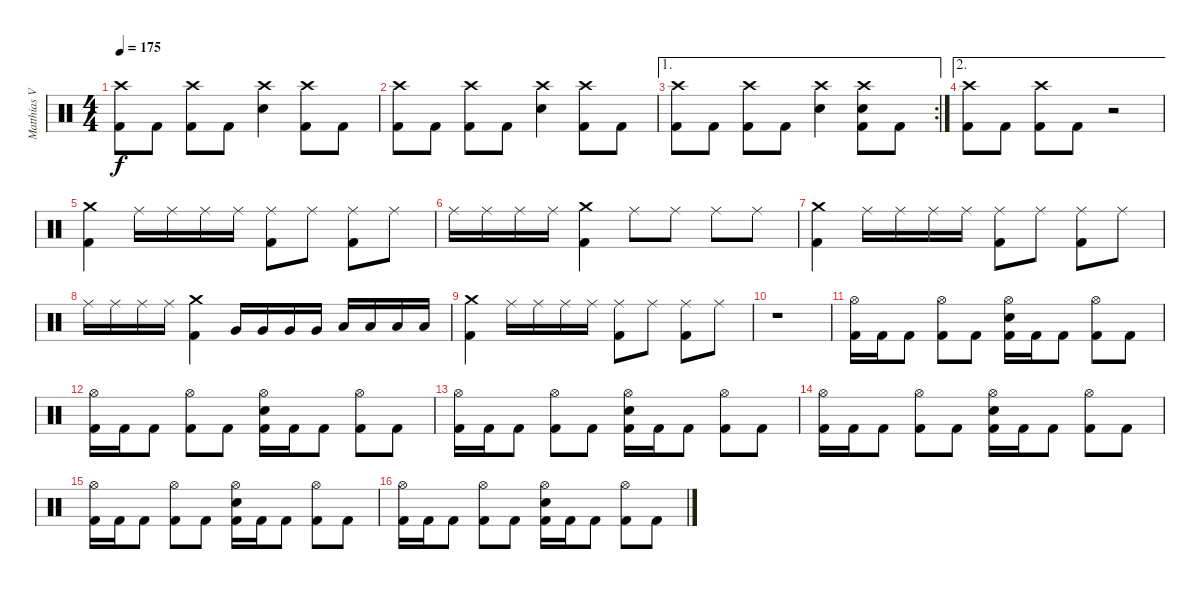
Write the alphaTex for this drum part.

\track ("Matthias Voigt" "Matthias V") {instrument percussion}
\staff {score}
\articulation defaults
\ts (4 4)
\tempo 175
\clef neutral
\ks c
("Crash high (hit)" "Kick (hit) 2").8{dy f} "Kick (hit) 2".8 ("Crash high (hit)" "Kick (hit) 2").8 "Kick (hit) 2".8 ("Crash high (hit)" "Electric Snare (hit)").4 ("Crash high (hit)" "Kick (hit) 2").8 "Kick (hit) 2".8 |
("Crash high (hit)" "Kick (hit) 2").8 "Kick (hit) 2".8 ("Crash high (hit)" "Kick (hit) 2").8 "Kick (hit) 2".8 ("Crash high (hit)" "Electric Snare (hit)").4 ("Crash high (hit)" "Kick (hit) 2").8 "Kick (hit) 2".8 |
\ae 1
\rc 2
("Crash high (hit)" "Kick (hit) 2").8 "Kick (hit) 2".8 ("Crash high (hit)" "Kick (hit) 2").8 "Kick (hit) 2".8 ("Crash high (hit)" "Electric Snare (hit)").4 ("Crash high (hit)" "Electric Snare (hit)" "Kick (hit) 2").8 "Kick (hit) 2".8 |
\ae 2
("Crash high (hit)" "Kick (hit) 2").8 "Kick (hit) 2".8 ("Crash high (hit)" "Kick (hit) 2").8 "Kick (hit) 2".8 r.2 |
("Crash medium (hit)" "Kick (hit) 2").4 "Ride (middle)".16 "Ride (middle)".16 "Ride (middle)".16 "Ride (middle)".16 ("Ride (middle)" "Kick (hit) 2").8 "Ride (middle)".8 ("Ride (middle)" "Kick (hit) 2").8 "Ride (middle)".8 |
"Ride (middle)".16 "Ride (middle)".16 "Ride (middle)".16 "Ride (middle)".16 ("Crash medium (hit)" "Kick (hit) 2").4 "Ride (middle)".8 "Ride (middle)".8 "Ride (middle)".8 "Ride (middle)".8 |
("Crash medium (hit)" "Kick (hit) 2").4 "Ride (middle)".16 "Ride (middle)".16 "Ride (middle)".16 "Ride (middle)".16 ("Ride (middle)" "Kick (hit) 2").8 "Ride (middle)".8 ("Ride (middle)" "Kick (hit) 2").8 "Ride (middle)".8 |
"Ride (middle)".16 "Ride (middle)".16 "Ride (middle)".16 "Ride (middle)".16 ("Crash medium (hit)" "Kick (hit) 2").4 "Very Low Tom (hit)".16 "Very Low Tom (hit)".16 "Very Low Tom (hit)".16 "Very Low Tom (hit)".16 "Low Tom (hit)".16 "Low Tom (hit)".16 "Low Tom (hit)".16 "Low Tom (hit)".16 |
("Crash medium (hit)" "Kick (hit) 2").4 "Ride (middle)".16 "Ride (middle)".16 "Ride (middle)".16 "Ride (middle)".16 ("Ride (middle)" "Kick (hit) 2").8 "Ride (middle)".8 ("Ride (middle)" "Kick (hit) 2").8 "Ride (middle)".8 |
r.1 |
("Hi-Hat (open)" "Kick (hit) 2").16 "Kick (hit) 2".16 "Kick (hit) 2".8 ("Hi-Hat (open)" "Kick (hit) 2").8 "Kick (hit) 2".8 ("Hi-Hat (open)" "Electric Snare (hit)" "Kick (hit) 2").16 "Kick (hit) 2".16 "Kick (hit) 2".8 ("Hi-Hat (open)" "Kick (hit) 2").8 "Kick (hit) 2".8 |
("Hi-Hat (open)" "Kick (hit) 2").16 "Kick (hit) 2".16 "Kick (hit) 2".8 ("Hi-Hat (open)" "Kick (hit) 2").8 "Kick (hit) 2".8 ("Hi-Hat (open)" "Electric Snare (hit)" "Kick (hit) 2").16 "Kick (hit) 2".16 "Kick (hit) 2".8 ("Hi-Hat (open)" "Kick (hit) 2").8 "Kick (hit) 2".8 |
("Hi-Hat (open)" "Kick (hit) 2").16 "Kick (hit) 2".16 "Kick (hit) 2".8 ("Hi-Hat (open)" "Kick (hit) 2").8 "Kick (hit) 2".8 ("Hi-Hat (open)" "Electric Snare (hit)" "Kick (hit) 2").16 "Kick (hit) 2".16 "Kick (hit) 2".8 ("Hi-Hat (open)" "Kick (hit) 2").8 "Kick (hit) 2".8 |
("Hi-Hat (open)" "Kick (hit) 2").16 "Kick (hit) 2".16 "Kick (hit) 2".8 ("Hi-Hat (open)" "Kick (hit) 2").8 "Kick (hit) 2".8 ("Hi-Hat (open)" "Electric Snare (hit)" "Kick (hit) 2").16 "Kick (hit) 2".16 "Kick (hit) 2".8 ("Hi-Hat (open)" "Kick (hit) 2").8 "Kick (hit) 2".8 |
("Hi-Hat (open)" "Kick (hit) 2").16 "Kick (hit) 2".16 "Kick (hit) 2".8 ("Hi-Hat (open)" "Kick (hit) 2").8 "Kick (hit) 2".8 ("Hi-Hat (open)" "Electric Snare (hit)" "Kick (hit) 2").16 "Kick (hit) 2".16 "Kick (hit) 2".8 ("Hi-Hat (open)" "Kick (hit) 2").8 "Kick (hit) 2".8 |
("Hi-Hat (open)" "Kick (hit) 2").16 "Kick (hit) 2".16 "Kick (hit) 2".8 ("Hi-Hat (open)" "Kick (hit) 2").8 "Kick (hit) 2".8 ("Hi-Hat (open)" "Electric Snare (hit)" "Kick (hit) 2").16 "Kick (hit) 2".16 "Kick (hit) 2".8 ("Hi-Hat (open)" "Kick (hit) 2").8 "Kick (hit) 2".8
